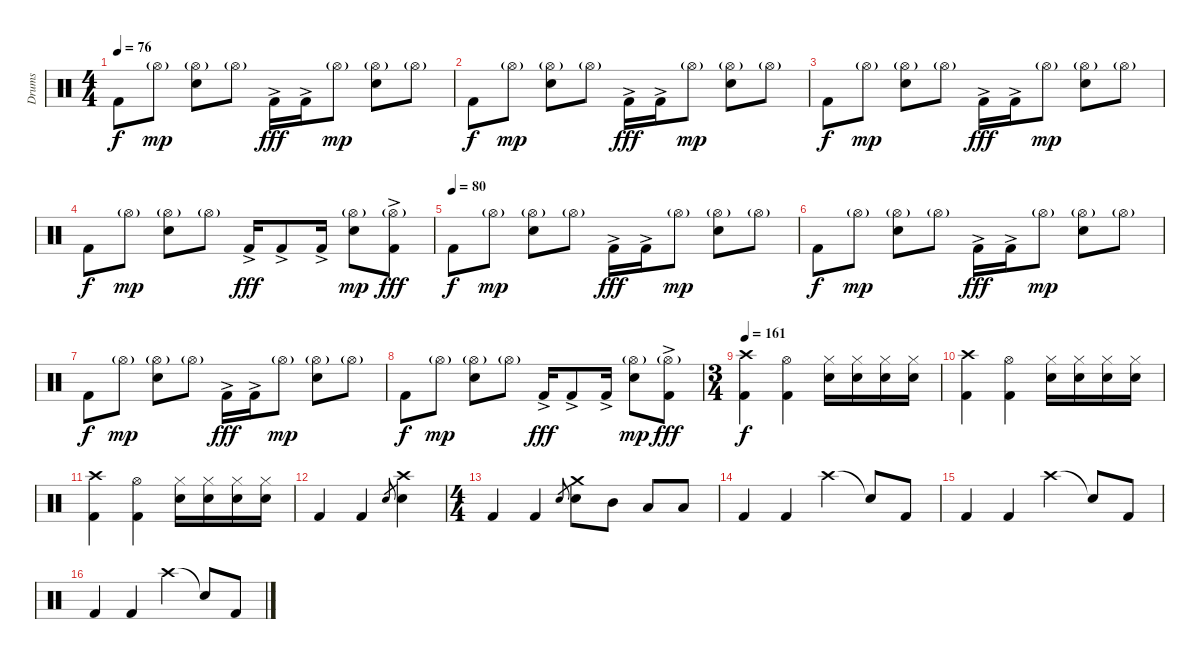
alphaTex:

\track ("Drums" "Drums") {instrument percussion}
\staff {score}
\articulation defaults
\ts (4 4)
\tempo 76
\clef neutral
\ks c "Kick (hit) 2".8{dy f} "Hi-Hat (open)"{g}.8{dy mp}
("Hi-Hat (open)"{g} "Electric Snare (hit)").8 "Hi-Hat (open)"{g}.8 "Kick (hit) 2"{ac}.16{dy fff} "Kick (hit) 2"{ac}.16 "Hi-Hat (open)"{g}.8{dy mp} ("Hi-Hat (open)"{g} "Electric Snare (hit)").8 "Hi-Hat (open)"{g}.8 |
"Kick (hit) 2".8{dy f} "Hi-Hat (open)"{g}.8{dy mp} ("Hi-Hat (open)"{g} "Electric Snare (hit)").8 "Hi-Hat (open)"{g}.8 "Kick (hit) 2"{ac}.16{dy fff} "Kick (hit) 2"{ac}.16 "Hi-Hat (open)"{g}.8{dy mp} ("Hi-Hat (open)"{g} "Electric Snare (hit)").8 "Hi-Hat (open)"{g}.8 |
"Kick (hit) 2".8{dy f} "Hi-Hat (open)"{g}.8{dy mp} ("Hi-Hat (open)"{g} "Electric Snare (hit)").8 "Hi-Hat (open)"{g}.8 "Kick (hit) 2"{ac}.16{dy fff} "Kick (hit) 2"{ac}.16 "Hi-Hat (open)"{g}.8{dy mp} ("Hi-Hat (open)"{g} "Electric Snare (hit)").8 "Hi-Hat (open)"{g}.8 |
"Kick (hit) 2".8{dy f} "Hi-Hat (open)"{g}.8{dy mp} ("Hi-Hat (open)"{g} "Electric Snare (hit)").8 "Hi-Hat (open)"{g}.8 "Kick (hit) 2"{ac}.16{dy fff} "Kick (hit) 2"{ac}.8 "Kick (hit) 2"{ac}.16 ("Hi-Hat (open)"{g} "Electric Snare (hit)").8{dy mp} ("Hi-Hat (open)"{g} "Kick (hit) 2"{ac}).8{dy fff} |
\tempo (80)
"Kick (hit) 2".8{dy f} "Hi-Hat (open)"{g}.8{dy mp} ("Hi-Hat (open)"{g} "Electric Snare (hit)").8 "Hi-Hat (open)"{g}.8 "Kick (hit) 2"{ac}.16{dy fff} "Kick (hit) 2"{ac}.16 "Hi-Hat (open)"{g}.8{dy mp} ("Hi-Hat (open)"{g} "Electric Snare (hit)").8 "Hi-Hat (open)"{g}.8 |
"Kick (hit) 2".8{dy f} "Hi-Hat (open)"{g}.8{dy mp} ("Hi-Hat (open)"{g} "Electric Snare (hit)").8 "Hi-Hat (open)"{g}.8 "Kick (hit) 2"{ac}.16{dy fff} "Kick (hit) 2"{ac}.16 "Hi-Hat (open)"{g}.8{dy mp} ("Hi-Hat (open)"{g} "Electric Snare (hit)").8 "Hi-Hat (open)"{g}.8 |
"Kick (hit) 2".8{dy f} "Hi-Hat (open)"{g}.8{dy mp} ("Hi-Hat (open)"{g} "Electric Snare (hit)").8 "Hi-Hat (open)"{g}.8 "Kick (hit) 2"{ac}.16{dy fff} "Kick (hit) 2"{ac}.16 "Hi-Hat (open)"{g}.8{dy mp} ("Hi-Hat (open)"{g} "Electric Snare (hit)").8 "Hi-Hat (open)"{g}.8 |
"Kick (hit) 2".8{dy f} "Hi-Hat (open)"{g}.8{dy mp} ("Hi-Hat (open)"{g} "Electric Snare (hit)").8 "Hi-Hat (open)"{g}.8 "Kick (hit) 2"{ac}.16{dy fff} "Kick (hit) 2"{ac}.8 "Kick (hit) 2"{ac}.16 ("Hi-Hat (open)"{g} "Electric Snare (hit)").8{dy mp} ("Hi-Hat (open)"{g} "Kick (hit) 2"{ac}).8{dy fff} |
\ts (3 4)
\tempo 161
("Kick (hit) 2" "Crash high (hit)").4{dy f} ("Kick (hit) 2" "Hi-Hat (open)").4 ("Hi-Hat (closed)" "Electric Snare (hit)").16 ("Hi-Hat (closed)" "Electric Snare (hit)").16 ("Hi-Hat (closed)" "Electric Snare (hit)").16 ("Hi-Hat (closed)" "Electric Snare (hit)").16 |
("Kick (hit) 2" "Crash high (hit)").4 ("Kick (hit) 2" "Hi-Hat (open)").4 ("Hi-Hat (closed)" "Electric Snare (hit)").16 ("Hi-Hat (closed)" "Electric Snare (hit)").16 ("Hi-Hat (closed)" "Electric Snare (hit)").16 ("Hi-Hat (closed)" "Electric Snare (hit)").16 |
("Kick (hit) 2" "Crash high (hit)").4 ("Kick (hit) 2" "Hi-Hat (open)").4 ("Hi-Hat (closed)" "Electric Snare (hit)").16 ("Hi-Hat (closed)" "Electric Snare (hit)").16 ("Hi-Hat (closed)" "Electric Snare (hit)").16 ("Hi-Hat (closed)" "Electric Snare (hit)").16 |
"Kick (hit) 2".4 "Kick (hit) 2".4 "Electric Snare (hit)".8{gr} ("Electric Snare (hit)" "Crash high (hit)").4 |
\ts (4 4)
"Kick (hit) 2".4 "Kick (hit) 2".4 "Electric Snare (hit)".8{gr} ("Electric Snare (hit)" "Crash medium (hit)").8 "Mid Tom (hit)".8 "Low Tom (hit)".8 "Low Floor Tom (hit)".8 |
"Kick (hit) 2".4 "Kick (hit) 2".4 "Crash high (hit)".4 "Snare (hit)"{t}.8 "Kick (hit) 2".8 |
"Kick (hit) 2".4 "Kick (hit) 2".4 "Crash high (hit)".4 "Snare (hit)"{t}.8 "Kick (hit) 2".8 |
"Kick (hit) 2".4 "Kick (hit) 2".4 "Crash high (hit)".4 "Snare (hit)"{t}.8 "Kick (hit) 2".8
